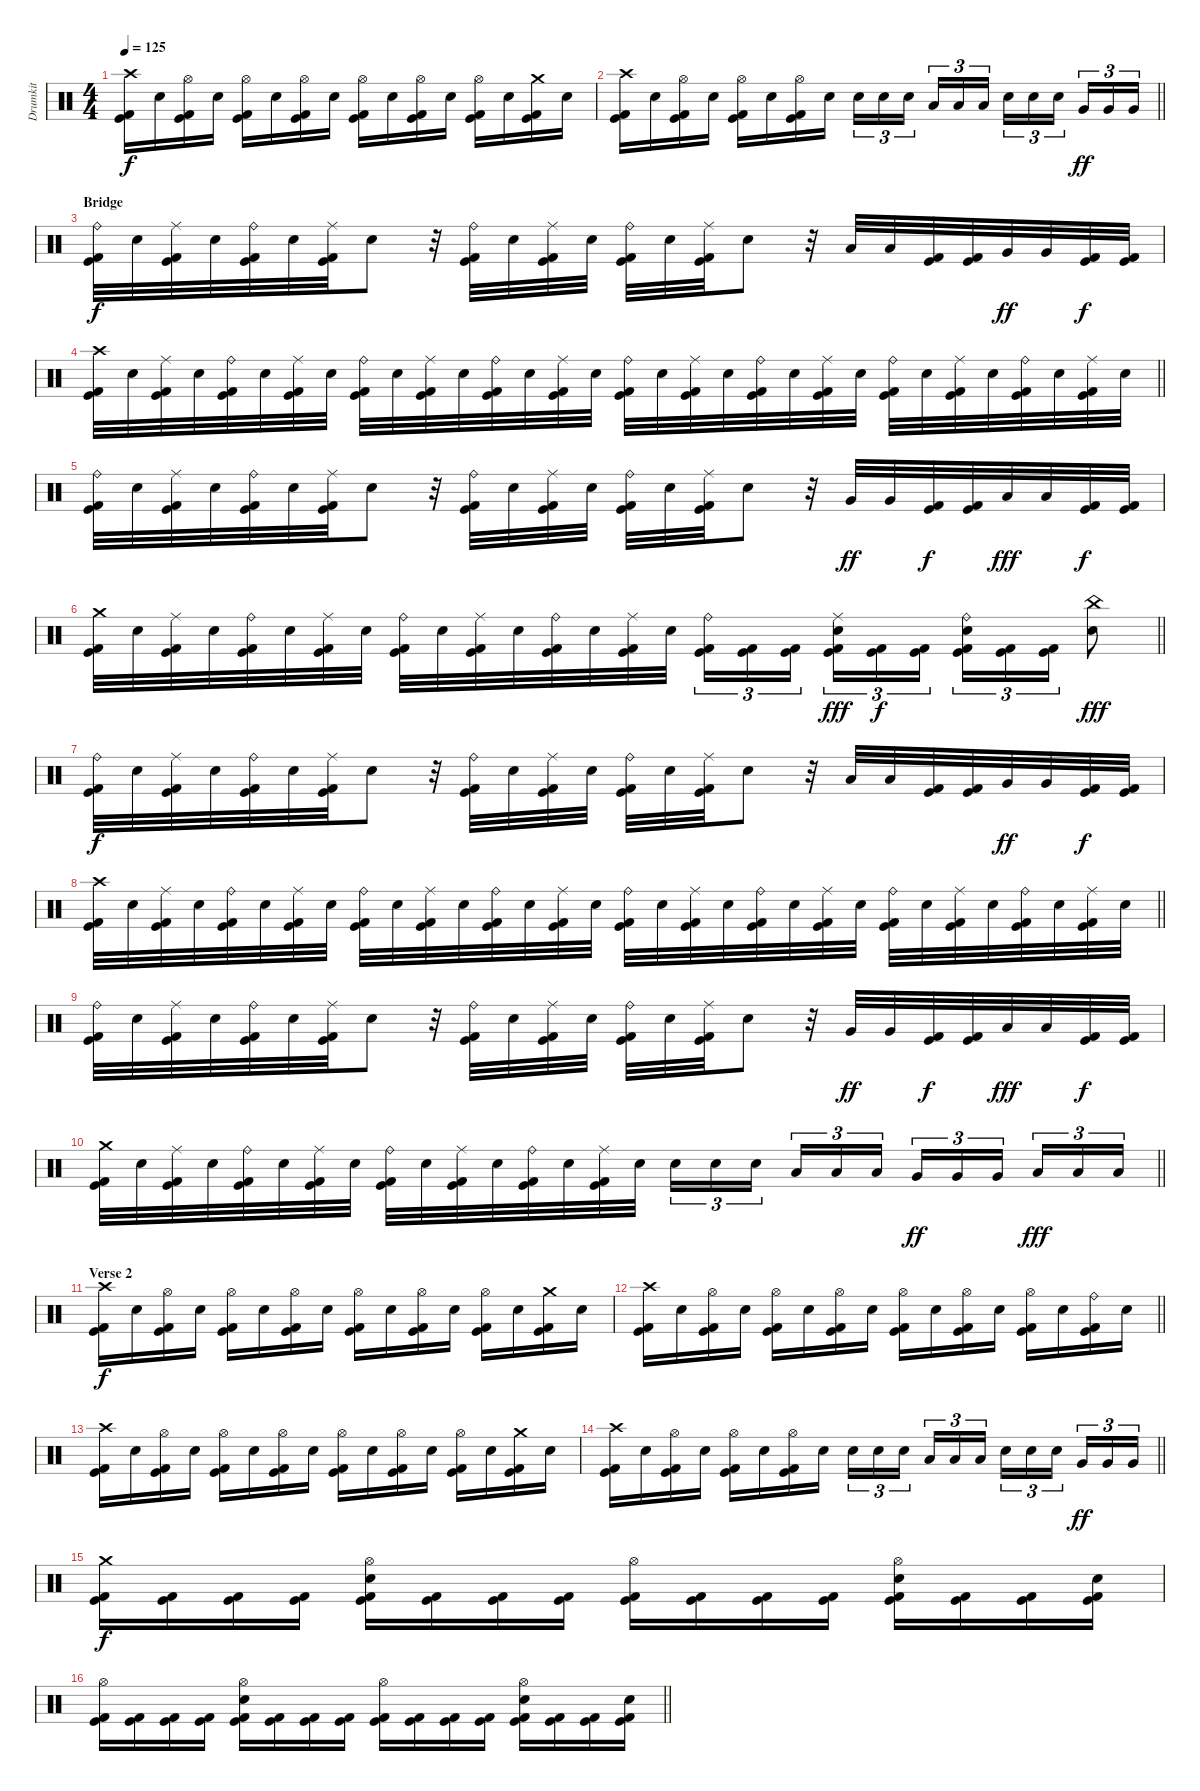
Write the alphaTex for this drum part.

\track ("Drumkit" "Drumkit") {instrument percussion}
\staff {score}
\articulation defaults
\ts (4 4)
\tempo 125
\clef neutral
\ks c
("Crash high (hit)" "Kick (hit)" "Kick (hit) 2").16{dy f} "Electric Snare (hit)".16 ("Hi-Hat (open)" "Kick (hit)" "Kick (hit) 2").16 "Electric Snare (hit)".16 ("Hi-Hat (open)" "Kick (hit)" "Kick (hit) 2").16 "Electric Snare (hit)".16 ("Hi-Hat (open)" "Kick (hit)" "Kick (hit) 2").16 "Electric Snare (hit)".16 ("Hi-Hat (open)" "Kick (hit)" "Kick (hit) 2").16 "Electric Snare (hit)".16 ("Hi-Hat (open)" "Kick (hit)" "Kick (hit) 2").16 "Electric Snare (hit)".16 ("Hi-Hat (open)" "Kick (hit)" "Kick (hit) 2").16 "Electric Snare (hit)".16 ("Crash medium (hit)" "Kick (hit)" "Kick (hit) 2").16 "Electric Snare (hit)".16 |
\barLineRight lightlight
("Crash high (hit)" "Kick (hit)" "Kick (hit) 2").16 "Electric Snare (hit)".16 ("Hi-Hat (open)" "Kick (hit)" "Kick (hit) 2").16 "Electric Snare (hit)".16 ("Hi-Hat (open)" "Kick (hit)" "Kick (hit) 2").16 "Electric Snare (hit)".16 ("Hi-Hat (open)" "Kick (hit)" "Kick (hit) 2").16 "Electric Snare (hit)".16 "Electric Snare (hit)".16{tu (3 2)} "Electric Snare (hit)".16{tu (3 2)} "Electric Snare (hit)".16{tu (3 2) beam splitsecondary} "Low Tom (hit)".16{tu (3 2)} "Low Tom (hit)".16{tu (3 2)} "Low Tom (hit)".16{tu (3 2)} "Electric Snare (hit)".16{tu (3 2)} "Electric Snare (hit)".16{tu (3 2)} "Electric Snare (hit)".16{tu (3 2) beam splitsecondary} "Very Low Tom (hit)".16{tu (3 2) dy ff} "Very Low Tom (hit)".16{tu (3 2)} "Very Low Tom (hit)".16{tu (3 2)} |
\section ("" "Bridge")
("Ride (bell)" "Kick (hit)" "Kick (hit) 2").32{dy f} "Electric Snare (hit)".32 ("Ride (middle)" "Kick (hit)" "Kick (hit) 2").32 "Electric Snare (hit)".32 ("Ride (bell)" "Kick (hit)" "Kick (hit) 2").32 "Electric Snare (hit)".32 ("Ride (middle)" "Kick (hit)" "Kick (hit) 2").32 "Electric Snare (hit)".8 r.32 ("Ride (bell)" "Kick (hit)" "Kick (hit) 2").32 "Electric Snare (hit)".32 ("Ride (middle)" "Kick (hit)" "Kick (hit) 2").32 "Electric Snare (hit)".32 ("Ride (bell)" "Kick (hit)" "Kick (hit) 2").32 "Electric Snare (hit)".32 ("Ride (middle)" "Kick (hit)" "Kick (hit) 2").32 "Electric Snare (hit)".8 r.32 "Low Tom (hit)".32 "Low Tom (hit)".32 ("Kick (hit)" "Kick (hit) 2").32 ("Kick (hit)" "Kick (hit) 2").32 "Very Low Tom (hit)".32{dy ff} "Very Low Tom (hit)".32 ("Kick (hit)" "Kick (hit) 2").32{dy f} ("Kick (hit)" "Kick (hit) 2").32 |
\barLineRight lightlight
("Crash high (hit)" "Kick (hit)" "Kick (hit) 2").32 "Electric Snare (hit)".32 ("Ride (middle)" "Kick (hit)" "Kick (hit) 2").32 "Electric Snare (hit)".32 ("Ride (bell)" "Kick (hit)" "Kick (hit) 2").32 "Electric Snare (hit)".32 ("Ride (middle)" "Kick (hit)" "Kick (hit) 2").32 "Electric Snare (hit)".32 ("Ride (bell)" "Kick (hit)" "Kick (hit) 2").32 "Electric Snare (hit)".32 ("Ride (middle)" "Kick (hit)" "Kick (hit) 2").32 "Electric Snare (hit)".32 ("Ride (bell)" "Kick (hit)" "Kick (hit) 2").32 "Electric Snare (hit)".32 ("Ride (middle)" "Kick (hit)" "Kick (hit) 2").32 "Electric Snare (hit)".32 ("Ride (bell)" "Kick (hit)" "Kick (hit) 2").32 "Electric Snare (hit)".32 ("Ride (middle)" "Kick (hit)" "Kick (hit) 2").32 "Electric Snare (hit)".32 ("Ride (bell)" "Kick (hit)" "Kick (hit) 2").32 "Electric Snare (hit)".32 ("Ride (middle)" "Kick (hit)" "Kick (hit) 2").32 "Electric Snare (hit)".32 ("Ride (bell)" "Kick (hit)" "Kick (hit) 2").32 "Electric Snare (hit)".32 ("Ride (middle)" "Kick (hit)" "Kick (hit) 2").32 "Electric Snare (hit)".32 ("Ride (bell)" "Kick (hit)" "Kick (hit) 2").32 "Electric Snare (hit)".32 ("Ride (middle)" "Kick (hit)" "Kick (hit) 2").32 "Electric Snare (hit)".32 |
("Ride (bell)" "Kick (hit)" "Kick (hit) 2").32 "Electric Snare (hit)".32 ("Ride (middle)" "Kick (hit)" "Kick (hit) 2").32 "Electric Snare (hit)".32 ("Ride (bell)" "Kick (hit)" "Kick (hit) 2").32 "Electric Snare (hit)".32 ("Ride (middle)" "Kick (hit)" "Kick (hit) 2").32 "Electric Snare (hit)".8 r.32 ("Ride (bell)" "Kick (hit)" "Kick (hit) 2").32 "Electric Snare (hit)".32 ("Ride (middle)" "Kick (hit)" "Kick (hit) 2").32 "Electric Snare (hit)".32 ("Ride (bell)" "Kick (hit)" "Kick (hit) 2").32 "Electric Snare (hit)".32 ("Ride (middle)" "Kick (hit)" "Kick (hit) 2").32 "Electric Snare (hit)".8 r.32 "Very Low Tom (hit)".32{dy ff} "Very Low Tom (hit)".32 ("Kick (hit)" "Kick (hit) 2").32{dy f} ("Kick (hit)" "Kick (hit) 2").32 "Low Floor Tom (hit)".32{dy fff} "Low Floor Tom (hit)".32 ("Kick (hit)" "Kick (hit) 2").32{dy f} ("Kick (hit)" "Kick (hit) 2").32 |
\barLineRight lightlight
("Crash medium (hit)" "Kick (hit)" "Kick (hit) 2").32 "Electric Snare (hit)".32 ("Ride (middle)" "Kick (hit)" "Kick (hit) 2").32 "Electric Snare (hit)".32 ("Ride (bell)" "Kick (hit)" "Kick (hit) 2").32 "Electric Snare (hit)".32 ("Ride (middle)" "Kick (hit)" "Kick (hit) 2").32 "Electric Snare (hit)".32 ("Ride (bell)" "Kick (hit)" "Kick (hit) 2").32 "Electric Snare (hit)".32 ("Ride (middle)" "Kick (hit)" "Kick (hit) 2").32 "Electric Snare (hit)".32 ("Ride (bell)" "Kick (hit)" "Kick (hit) 2").32 "Electric Snare (hit)".32 ("Ride (middle)" "Kick (hit)" "Kick (hit) 2").32 "Electric Snare (hit)".32 ("Ride (bell)" "Kick (hit)" "Kick (hit) 2").16{tu (3 2)} ("Kick (hit)" "Kick (hit) 2").16{tu (3 2)} ("Kick (hit)" "Kick (hit) 2").16{tu (3 2) beam splitsecondary} ("Ride (middle)" "Electric Snare (hit)" "Kick (hit)" "Kick (hit) 2").16{tu (3 2) dy fff} ("Kick (hit)" "Kick (hit) 2").16{tu (3 2) dy f} ("Kick (hit)" "Kick (hit) 2").16{tu (3 2)} ("Ride (bell)" "Electric Snare (hit)" "Kick (hit)" "Kick (hit) 2").16{tu (3 2)} ("Kick (hit)" "Kick (hit) 2").16{tu (3 2)} ("Kick (hit)" "Kick (hit) 2").16{tu (3 2)} ("China (hit)" "Electric Snare (hit)").8{dy fff} |
("Ride (bell)" "Kick (hit)" "Kick (hit) 2").32{dy f} "Electric Snare (hit)".32 ("Ride (middle)" "Kick (hit)" "Kick (hit) 2").32 "Electric Snare (hit)".32 ("Ride (bell)" "Kick (hit)" "Kick (hit) 2").32 "Electric Snare (hit)".32 ("Ride (middle)" "Kick (hit)" "Kick (hit) 2").32 "Electric Snare (hit)".8 r.32 ("Ride (bell)" "Kick (hit)" "Kick (hit) 2").32 "Electric Snare (hit)".32 ("Ride (middle)" "Kick (hit)" "Kick (hit) 2").32 "Electric Snare (hit)".32 ("Ride (bell)" "Kick (hit)" "Kick (hit) 2").32 "Electric Snare (hit)".32 ("Ride (middle)" "Kick (hit)" "Kick (hit) 2").32 "Electric Snare (hit)".8 r.32 "Low Tom (hit)".32 "Low Tom (hit)".32 ("Kick (hit)" "Kick (hit) 2").32 ("Kick (hit)" "Kick (hit) 2").32 "Very Low Tom (hit)".32{dy ff} "Very Low Tom (hit)".32 ("Kick (hit)" "Kick (hit) 2").32{dy f} ("Kick (hit)" "Kick (hit) 2").32 |
\barLineRight lightlight
("Crash high (hit)" "Kick (hit)" "Kick (hit) 2").32 "Electric Snare (hit)".32 ("Ride (middle)" "Kick (hit)" "Kick (hit) 2").32 "Electric Snare (hit)".32 ("Ride (bell)" "Kick (hit)" "Kick (hit) 2").32 "Electric Snare (hit)".32 ("Ride (middle)" "Kick (hit)" "Kick (hit) 2").32 "Electric Snare (hit)".32 ("Ride (bell)" "Kick (hit)" "Kick (hit) 2").32 "Electric Snare (hit)".32 ("Ride (middle)" "Kick (hit)" "Kick (hit) 2").32 "Electric Snare (hit)".32 ("Ride (bell)" "Kick (hit)" "Kick (hit) 2").32 "Electric Snare (hit)".32 ("Ride (middle)" "Kick (hit)" "Kick (hit) 2").32 "Electric Snare (hit)".32 ("Ride (bell)" "Kick (hit)" "Kick (hit) 2").32 "Electric Snare (hit)".32 ("Ride (middle)" "Kick (hit)" "Kick (hit) 2").32 "Electric Snare (hit)".32 ("Ride (bell)" "Kick (hit)" "Kick (hit) 2").32 "Electric Snare (hit)".32 ("Ride (middle)" "Kick (hit)" "Kick (hit) 2").32 "Electric Snare (hit)".32 ("Ride (bell)" "Kick (hit)" "Kick (hit) 2").32 "Electric Snare (hit)".32 ("Ride (middle)" "Kick (hit)" "Kick (hit) 2").32 "Electric Snare (hit)".32 ("Ride (bell)" "Kick (hit)" "Kick (hit) 2").32 "Electric Snare (hit)".32 ("Ride (middle)" "Kick (hit)" "Kick (hit) 2").32 "Electric Snare (hit)".32 |
("Ride (bell)" "Kick (hit)" "Kick (hit) 2").32 "Electric Snare (hit)".32 ("Ride (middle)" "Kick (hit)" "Kick (hit) 2").32 "Electric Snare (hit)".32 ("Ride (bell)" "Kick (hit)" "Kick (hit) 2").32 "Electric Snare (hit)".32 ("Ride (middle)" "Kick (hit)" "Kick (hit) 2").32 "Electric Snare (hit)".8 r.32 ("Ride (bell)" "Kick (hit)" "Kick (hit) 2").32 "Electric Snare (hit)".32 ("Ride (middle)" "Kick (hit)" "Kick (hit) 2").32 "Electric Snare (hit)".32 ("Ride (bell)" "Kick (hit)" "Kick (hit) 2").32 "Electric Snare (hit)".32 ("Ride (middle)" "Kick (hit)" "Kick (hit) 2").32 "Electric Snare (hit)".8 r.32 "Very Low Tom (hit)".32{dy ff} "Very Low Tom (hit)".32 ("Kick (hit)" "Kick (hit) 2").32{dy f} ("Kick (hit)" "Kick (hit) 2").32 "Low Floor Tom (hit)".32{dy fff} "Low Floor Tom (hit)".32 ("Kick (hit)" "Kick (hit) 2").32{dy f} ("Kick (hit)" "Kick (hit) 2").32 |
\barLineRight lightlight
("Crash medium (hit)" "Kick (hit)" "Kick (hit) 2").32 "Electric Snare (hit)".32 ("Ride (middle)" "Kick (hit)" "Kick (hit) 2").32 "Electric Snare (hit)".32 ("Ride (bell)" "Kick (hit)" "Kick (hit) 2").32 "Electric Snare (hit)".32 ("Ride (middle)" "Kick (hit)" "Kick (hit) 2").32 "Electric Snare (hit)".32 ("Ride (bell)" "Kick (hit)" "Kick (hit) 2").32 "Electric Snare (hit)".32 ("Ride (middle)" "Kick (hit)" "Kick (hit) 2").32 "Electric Snare (hit)".32 ("Ride (bell)" "Kick (hit)" "Kick (hit) 2").32 "Electric Snare (hit)".32 ("Ride (middle)" "Kick (hit)" "Kick (hit) 2").32 "Electric Snare (hit)".32 "Electric Snare (hit)".16{tu (3 2)} "Electric Snare (hit)".16{tu (3 2)} "Electric Snare (hit)".16{tu (3 2) beam splitsecondary} "Low Tom (hit)".16{tu (3 2)} "Low Tom (hit)".16{tu (3 2)} "Low Tom (hit)".16{tu (3 2)} "Very Low Tom (hit)".16{tu (3 2) dy ff} "Very Low Tom (hit)".16{tu (3 2)} "Very Low Tom (hit)".16{tu (3 2) beam splitsecondary} "Low Floor Tom (hit)".16{tu (3 2) dy fff} "Low Floor Tom (hit)".16{tu (3 2)} "Low Floor Tom (hit)".16{tu (3 2)} |
\section ("" "Verse 2")
("Crash high (hit)" "Kick (hit)" "Kick (hit) 2").16{dy f} "Electric Snare (hit)".16 ("Hi-Hat (open)" "Kick (hit)" "Kick (hit) 2").16 "Electric Snare (hit)".16 ("Hi-Hat (open)" "Kick (hit)" "Kick (hit) 2").16 "Electric Snare (hit)".16 ("Hi-Hat (open)" "Kick (hit)" "Kick (hit) 2").16 "Electric Snare (hit)".16 ("Hi-Hat (open)" "Kick (hit)" "Kick (hit) 2").16 "Electric Snare (hit)".16 ("Hi-Hat (open)" "Kick (hit)" "Kick (hit) 2").16 "Electric Snare (hit)".16 ("Hi-Hat (open)" "Kick (hit)" "Kick (hit) 2").16 "Electric Snare (hit)".16 ("Crash medium (hit)" "Kick (hit)" "Kick (hit) 2").16 "Electric Snare (hit)".16 |
\barLineRight lightlight
("Crash high (hit)" "Kick (hit)" "Kick (hit) 2").16 "Electric Snare (hit)".16 ("Hi-Hat (open)" "Kick (hit)" "Kick (hit) 2").16 "Electric Snare (hit)".16 ("Hi-Hat (open)" "Kick (hit)" "Kick (hit) 2").16 "Electric Snare (hit)".16 ("Hi-Hat (open)" "Kick (hit)" "Kick (hit) 2").16 "Electric Snare (hit)".16 ("Hi-Hat (open)" "Kick (hit)" "Kick (hit) 2").16 "Electric Snare (hit)".16 ("Hi-Hat (open)" "Kick (hit)" "Kick (hit) 2").16 "Electric Snare (hit)".16 ("Hi-Hat (open)" "Kick (hit)" "Kick (hit) 2").16 "Electric Snare (hit)".16 ("Ride (bell)" "Kick (hit)" "Kick (hit) 2").16 "Electric Snare (hit)".16 |
("Crash high (hit)" "Kick (hit)" "Kick (hit) 2").16 "Electric Snare (hit)".16 ("Hi-Hat (open)" "Kick (hit)" "Kick (hit) 2").16 "Electric Snare (hit)".16 ("Hi-Hat (open)" "Kick (hit)" "Kick (hit) 2").16 "Electric Snare (hit)".16 ("Hi-Hat (open)" "Kick (hit)" "Kick (hit) 2").16 "Electric Snare (hit)".16 ("Hi-Hat (open)" "Kick (hit)" "Kick (hit) 2").16 "Electric Snare (hit)".16 ("Hi-Hat (open)" "Kick (hit)" "Kick (hit) 2").16 "Electric Snare (hit)".16 ("Hi-Hat (open)" "Kick (hit)" "Kick (hit) 2").16 "Electric Snare (hit)".16 ("Crash medium (hit)" "Kick (hit)" "Kick (hit) 2").16 "Electric Snare (hit)".16 |
\barLineRight lightlight
("Crash high (hit)" "Kick (hit)" "Kick (hit) 2").16 "Electric Snare (hit)".16 ("Hi-Hat (open)" "Kick (hit)" "Kick (hit) 2").16 "Electric Snare (hit)".16 ("Hi-Hat (open)" "Kick (hit)" "Kick (hit) 2").16 "Electric Snare (hit)".16 ("Hi-Hat (open)" "Kick (hit)" "Kick (hit) 2").16 "Electric Snare (hit)".16 "Electric Snare (hit)".16{tu (3 2)} "Electric Snare (hit)".16{tu (3 2)} "Electric Snare (hit)".16{tu (3 2) beam splitsecondary} "Low Tom (hit)".16{tu (3 2)} "Low Tom (hit)".16{tu (3 2)} "Low Tom (hit)".16{tu (3 2)} "Electric Snare (hit)".16{tu (3 2)} "Electric Snare (hit)".16{tu (3 2)} "Electric Snare (hit)".16{tu (3 2) beam splitsecondary} "Very Low Tom (hit)".16{tu (3 2) dy ff} "Very Low Tom (hit)".16{tu (3 2)} "Very Low Tom (hit)".16{tu (3 2)} |
("Crash medium (hit)" "Kick (hit)" "Kick (hit) 2").16{dy f} ("Kick (hit)" "Kick (hit) 2").16 ("Kick (hit)" "Kick (hit) 2").16 ("Kick (hit)" "Kick (hit) 2").16 ("Hi-Hat (open)" "Electric Snare (hit)" "Kick (hit)" "Kick (hit) 2").16 ("Kick (hit)" "Kick (hit) 2").16 ("Kick (hit)" "Kick (hit) 2").16 ("Kick (hit)" "Kick (hit) 2").16 ("Hi-Hat (open)" "Kick (hit)" "Kick (hit) 2").16 ("Kick (hit)" "Kick (hit) 2").16 ("Kick (hit)" "Kick (hit) 2").16 ("Kick (hit)" "Kick (hit) 2").16 ("Hi-Hat (open)" "Electric Snare (hit)" "Kick (hit)" "Kick (hit) 2").16 ("Kick (hit)" "Kick (hit) 2").16 ("Kick (hit)" "Kick (hit) 2").16 ("Electric Snare (hit)" "Kick (hit)" "Kick (hit) 2").16 |
\barLineRight lightlight
("Hi-Hat (open)" "Kick (hit)" "Kick (hit) 2").16 ("Kick (hit)" "Kick (hit) 2").16 ("Kick (hit)" "Kick (hit) 2").16 ("Kick (hit)" "Kick (hit) 2").16 ("Hi-Hat (open)" "Electric Snare (hit)" "Kick (hit)" "Kick (hit) 2").16 ("Kick (hit)" "Kick (hit) 2").16 ("Kick (hit)" "Kick (hit) 2").16 ("Kick (hit)" "Kick (hit) 2").16 ("Hi-Hat (open)" "Kick (hit)" "Kick (hit) 2").16 ("Kick (hit)" "Kick (hit) 2").16 ("Kick (hit)" "Kick (hit) 2").16 ("Kick (hit)" "Kick (hit) 2").16 ("Hi-Hat (open)" "Electric Snare (hit)" "Kick (hit)" "Kick (hit) 2").16 ("Kick (hit)" "Kick (hit) 2").16 ("Kick (hit)" "Kick (hit) 2").16 ("Electric Snare (hit)" "Kick (hit)" "Kick (hit) 2").16
